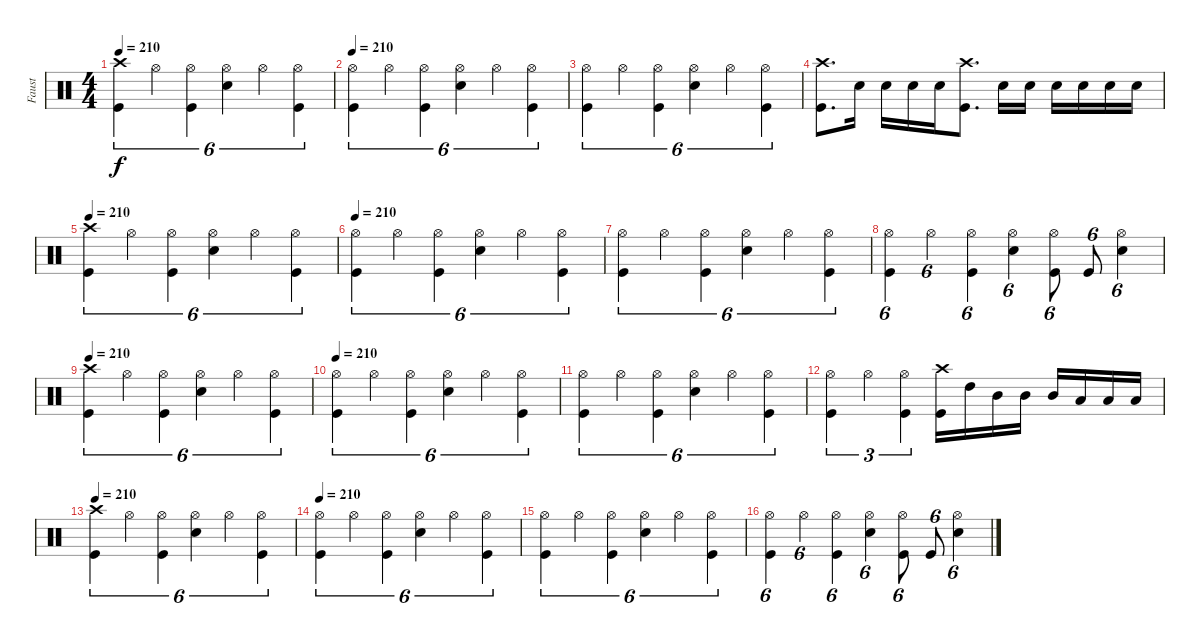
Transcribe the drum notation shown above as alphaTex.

\track ("Faust" "Faust") {instrument percussion}
\staff {score}
\articulation defaults
\ts (4 4)
\tempo 210
\clef neutral
\ks c
("Kick (hit)" "Crash high (hit)").4{tu (6 4) dy f} "Hi-Hat (open)".4{tu (6 4)} ("Kick (hit)" "Hi-Hat (open)").4{tu (6 4)} ("Snare (hit) 2" "Hi-Hat (open)").4{tu (6 4)} "Hi-Hat (open)".4{tu (6 4)} ("Kick (hit)" "Hi-Hat (open)").4{tu (6 4)} |
\tempo 210
("Kick (hit)" "Hi-Hat (open)").4{tu (6 4)} "Hi-Hat (open)".4{tu (6 4)} ("Kick (hit)" "Hi-Hat (open)").4{tu (6 4)} ("Snare (hit) 2" "Hi-Hat (open)").4{tu (6 4)} "Hi-Hat (open)".4{tu (6 4)} ("Kick (hit)" "Hi-Hat (open)").4{tu (6 4)} |
("Kick (hit)" "Hi-Hat (open)").4{tu (6 4)} "Hi-Hat (open)".4{tu (6 4)} ("Kick (hit)" "Hi-Hat (open)").4{tu (6 4)} ("Snare (hit) 2" "Hi-Hat (open)").4{tu (6 4)} "Hi-Hat (open)".4{tu (6 4)} ("Kick (hit)" "Hi-Hat (open)").4{tu (6 4)} |
("Kick (hit)" "Crash high (hit)").8{d} "Snare (hit) 2".16 "Snare (hit) 2".16 "Snare (hit) 2".16 "Snare (hit) 2".16 ("Kick (hit)" "Crash high (hit)").8{d} "Snare (hit) 2".16 "Snare (hit) 2".16 "Snare (hit) 2".16 "Snare (hit) 2".16 "Snare (hit) 2".16 "Snare (hit) 2".16 |
\tempo 210
("Kick (hit)" "Crash high (hit)").4{tu (6 4)} "Hi-Hat (open)".4{tu (6 4)} ("Kick (hit)" "Hi-Hat (open)").4{tu (6 4)} ("Snare (hit) 2" "Hi-Hat (open)").4{tu (6 4)} "Hi-Hat (open)".4{tu (6 4)} ("Kick (hit)" "Hi-Hat (open)").4{tu (6 4)} |
\tempo 210
("Kick (hit)" "Hi-Hat (open)").4{tu (6 4)} "Hi-Hat (open)".4{tu (6 4)} ("Kick (hit)" "Hi-Hat (open)").4{tu (6 4)} ("Snare (hit) 2" "Hi-Hat (open)").4{tu (6 4)} "Hi-Hat (open)".4{tu (6 4)} ("Kick (hit)" "Hi-Hat (open)").4{tu (6 4)} |
("Kick (hit)" "Hi-Hat (open)").4{tu (6 4)} "Hi-Hat (open)".4{tu (6 4)} ("Kick (hit)" "Hi-Hat (open)").4{tu (6 4)} ("Snare (hit) 2" "Hi-Hat (open)").4{tu (6 4)} "Hi-Hat (open)".4{tu (6 4)} ("Kick (hit)" "Hi-Hat (open)").4{tu (6 4)} |
("Kick (hit)" "Hi-Hat (open)").4{tu (6 4)} "Hi-Hat (open)".4{tu (6 4)} ("Kick (hit)" "Hi-Hat (open)").4{tu (6 4)} ("Snare (hit) 2" "Hi-Hat (open)").4{tu (6 4)} ("Kick (hit)" "Hi-Hat (open)").8{tu (6 4)} "Kick (hit)".8{tu (6 4)} ("Snare (hit) 2" "Hi-Hat (open)").4{tu (6 4)} |
\tempo 210
("Kick (hit)" "Crash high (hit)").4{tu (6 4)} "Hi-Hat (open)".4{tu (6 4)} ("Kick (hit)" "Hi-Hat (open)").4{tu (6 4)} ("Snare (hit) 2" "Hi-Hat (open)").4{tu (6 4)} "Hi-Hat (open)".4{tu (6 4)} ("Kick (hit)" "Hi-Hat (open)").4{tu (6 4)} |
\tempo 210
("Kick (hit)" "Hi-Hat (open)").4{tu (6 4)} "Hi-Hat (open)".4{tu (6 4)} ("Kick (hit)" "Hi-Hat (open)").4{tu (6 4)} ("Snare (hit) 2" "Hi-Hat (open)").4{tu (6 4)} "Hi-Hat (open)".4{tu (6 4)} ("Kick (hit)" "Hi-Hat (open)").4{tu (6 4)} |
("Kick (hit)" "Hi-Hat (open)").4{tu (6 4)} "Hi-Hat (open)".4{tu (6 4)} ("Kick (hit)" "Hi-Hat (open)").4{tu (6 4)} ("Snare (hit) 2" "Hi-Hat (open)").4{tu (6 4)} "Hi-Hat (open)".4{tu (6 4)} ("Kick (hit)" "Hi-Hat (open)").4{tu (6 4)} |
("Kick (hit)" "Hi-Hat (open)").4{tu (3 2)} "Hi-Hat (open)".4{tu (3 2)} ("Kick (hit)" "Hi-Hat (open)").4{tu (3 2)} ("Kick (hit)" "Crash high (hit)").16 "High Tom (hit)".16 "Mid Tom (hit)".16 "Mid Tom (hit)".16 "Mid Tom (hit)".16 "Low Tom (hit)".16 "Low Tom (hit)".16 "Low Tom (hit)".16 |
\tempo 210
("Kick (hit)" "Crash high (hit)").4{tu (6 4)} "Hi-Hat (open)".4{tu (6 4)} ("Kick (hit)" "Hi-Hat (open)").4{tu (6 4)} ("Snare (hit) 2" "Hi-Hat (open)").4{tu (6 4)} "Hi-Hat (open)".4{tu (6 4)} ("Kick (hit)" "Hi-Hat (open)").4{tu (6 4)} |
\tempo 210
("Kick (hit)" "Hi-Hat (open)").4{tu (6 4)} "Hi-Hat (open)".4{tu (6 4)} ("Kick (hit)" "Hi-Hat (open)").4{tu (6 4)} ("Snare (hit) 2" "Hi-Hat (open)").4{tu (6 4)} "Hi-Hat (open)".4{tu (6 4)} ("Kick (hit)" "Hi-Hat (open)").4{tu (6 4)} |
("Kick (hit)" "Hi-Hat (open)").4{tu (6 4)} "Hi-Hat (open)".4{tu (6 4)} ("Kick (hit)" "Hi-Hat (open)").4{tu (6 4)} ("Snare (hit) 2" "Hi-Hat (open)").4{tu (6 4)} "Hi-Hat (open)".4{tu (6 4)} ("Kick (hit)" "Hi-Hat (open)").4{tu (6 4)} |
("Kick (hit)" "Hi-Hat (open)").4{tu (6 4)} "Hi-Hat (open)".4{tu (6 4)} ("Kick (hit)" "Hi-Hat (open)").4{tu (6 4)} ("Snare (hit) 2" "Hi-Hat (open)").4{tu (6 4)} ("Kick (hit)" "Hi-Hat (open)").8{tu (6 4)} "Kick (hit)".8{tu (6 4)} ("Snare (hit) 2" "Hi-Hat (open)").4{tu (6 4)}
